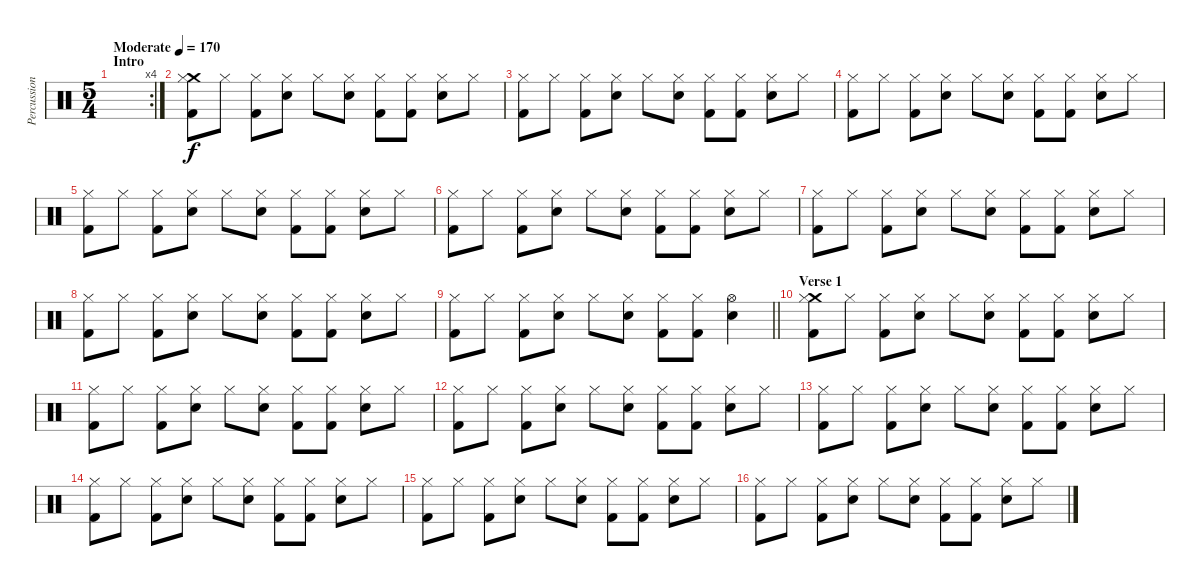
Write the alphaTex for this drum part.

\track ("Percussion" "Percussion") {instrument percussion}
\staff {score}
\articulation defaults
\rc 4
\ts (5 4)
\section ("" "Intro")
\tempo (170 "Moderate")
\clef neutral
\ks c
|
("Crash medium (hit)" "Hi-Hat (closed)" "Kick (hit) 2").8 "Hi-Hat (closed)".8 ("Hi-Hat (closed)" "Kick (hit) 2").8 ("Hi-Hat (closed)" "Electric Snare (hit)").8 "Hi-Hat (closed)".8 ("Hi-Hat (closed)" "Electric Snare (hit)").8 ("Hi-Hat (closed)" "Kick (hit) 2").8 ("Hi-Hat (closed)" "Kick (hit) 2").8 ("Hi-Hat (closed)" "Electric Snare (hit)").8 "Hi-Hat (closed)".8 |
("Hi-Hat (closed)" "Kick (hit) 2").8 "Hi-Hat (closed)".8 ("Hi-Hat (closed)" "Kick (hit) 2").8 ("Hi-Hat (closed)" "Electric Snare (hit)").8 "Hi-Hat (closed)".8 ("Hi-Hat (closed)" "Electric Snare (hit)").8 ("Hi-Hat (closed)" "Kick (hit) 2").8 ("Hi-Hat (closed)" "Kick (hit) 2").8 ("Hi-Hat (closed)" "Electric Snare (hit)").8 "Hi-Hat (closed)".8 |
("Hi-Hat (closed)" "Kick (hit) 2").8 "Hi-Hat (closed)".8 ("Hi-Hat (closed)" "Kick (hit) 2").8 ("Hi-Hat (closed)" "Electric Snare (hit)").8 "Hi-Hat (closed)".8 ("Hi-Hat (closed)" "Electric Snare (hit)").8 ("Hi-Hat (closed)" "Kick (hit) 2").8 ("Hi-Hat (closed)" "Kick (hit) 2").8 ("Hi-Hat (closed)" "Electric Snare (hit)").8 "Hi-Hat (closed)".8 |
("Hi-Hat (closed)" "Kick (hit) 2").8 "Hi-Hat (closed)".8 ("Hi-Hat (closed)" "Kick (hit) 2").8 ("Hi-Hat (closed)" "Electric Snare (hit)").8 "Hi-Hat (closed)".8 ("Hi-Hat (closed)" "Electric Snare (hit)").8 ("Hi-Hat (closed)" "Kick (hit) 2").8 ("Hi-Hat (closed)" "Kick (hit) 2").8 ("Hi-Hat (closed)" "Electric Snare (hit)").8 "Hi-Hat (closed)".8 |
("Hi-Hat (closed)" "Kick (hit) 2").8 "Hi-Hat (closed)".8 ("Hi-Hat (closed)" "Kick (hit) 2").8 ("Hi-Hat (closed)" "Electric Snare (hit)").8 "Hi-Hat (closed)".8 ("Hi-Hat (closed)" "Electric Snare (hit)").8 ("Hi-Hat (closed)" "Kick (hit) 2").8 ("Hi-Hat (closed)" "Kick (hit) 2").8 ("Hi-Hat (closed)" "Electric Snare (hit)").8 "Hi-Hat (closed)".8 |
("Hi-Hat (closed)" "Kick (hit) 2").8 "Hi-Hat (closed)".8 ("Hi-Hat (closed)" "Kick (hit) 2").8 ("Hi-Hat (closed)" "Electric Snare (hit)").8 "Hi-Hat (closed)".8 ("Hi-Hat (closed)" "Electric Snare (hit)").8 ("Hi-Hat (closed)" "Kick (hit) 2").8 ("Hi-Hat (closed)" "Kick (hit) 2").8 ("Hi-Hat (closed)" "Electric Snare (hit)").8 "Hi-Hat (closed)".8 |
("Hi-Hat (closed)" "Kick (hit) 2").8 "Hi-Hat (closed)".8 ("Hi-Hat (closed)" "Kick (hit) 2").8 ("Hi-Hat (closed)" "Electric Snare (hit)").8 "Hi-Hat (closed)".8 ("Hi-Hat (closed)" "Electric Snare (hit)").8 ("Hi-Hat (closed)" "Kick (hit) 2").8 ("Hi-Hat (closed)" "Kick (hit) 2").8 ("Hi-Hat (closed)" "Electric Snare (hit)").8 "Hi-Hat (closed)".8 |
\barLineRight lightlight
("Hi-Hat (closed)" "Kick (hit) 2").8 "Hi-Hat (closed)".8 ("Hi-Hat (closed)" "Kick (hit) 2").8 ("Hi-Hat (closed)" "Electric Snare (hit)").8 "Hi-Hat (closed)".8 ("Hi-Hat (closed)" "Electric Snare (hit)").8 ("Hi-Hat (closed)" "Kick (hit) 2").8 ("Hi-Hat (closed)" "Kick (hit) 2").8 ("Hi-Hat (open)" "Electric Snare (hit)").4 |
\section ("" "Verse 1")
("Crash medium (hit)" "Hi-Hat (closed)" "Kick (hit) 2").8 "Hi-Hat (closed)".8 ("Hi-Hat (closed)" "Kick (hit) 2").8 ("Hi-Hat (closed)" "Electric Snare (hit)").8 "Hi-Hat (closed)".8 ("Hi-Hat (closed)" "Electric Snare (hit)").8 ("Hi-Hat (closed)" "Kick (hit) 2").8 ("Hi-Hat (closed)" "Kick (hit) 2").8 ("Hi-Hat (closed)" "Electric Snare (hit)").8 "Hi-Hat (closed)".8 |
("Hi-Hat (closed)" "Kick (hit) 2").8 "Hi-Hat (closed)".8 ("Hi-Hat (closed)" "Kick (hit) 2").8 ("Hi-Hat (closed)" "Electric Snare (hit)").8 "Hi-Hat (closed)".8 ("Hi-Hat (closed)" "Electric Snare (hit)").8 ("Hi-Hat (closed)" "Kick (hit) 2").8 ("Hi-Hat (closed)" "Kick (hit) 2").8 ("Hi-Hat (closed)" "Electric Snare (hit)").8 "Hi-Hat (closed)".8 |
("Hi-Hat (closed)" "Kick (hit) 2").8 "Hi-Hat (closed)".8 ("Hi-Hat (closed)" "Kick (hit) 2").8 ("Hi-Hat (closed)" "Electric Snare (hit)").8 "Hi-Hat (closed)".8 ("Hi-Hat (closed)" "Electric Snare (hit)").8 ("Hi-Hat (closed)" "Kick (hit) 2").8 ("Hi-Hat (closed)" "Kick (hit) 2").8 ("Hi-Hat (closed)" "Electric Snare (hit)").8 "Hi-Hat (closed)".8 |
("Hi-Hat (closed)" "Kick (hit) 2").8 "Hi-Hat (closed)".8 ("Hi-Hat (closed)" "Kick (hit) 2").8 ("Hi-Hat (closed)" "Electric Snare (hit)").8 "Hi-Hat (closed)".8 ("Hi-Hat (closed)" "Electric Snare (hit)").8 ("Hi-Hat (closed)" "Kick (hit) 2").8 ("Hi-Hat (closed)" "Kick (hit) 2").8 ("Hi-Hat (closed)" "Electric Snare (hit)").8 "Hi-Hat (closed)".8 |
("Hi-Hat (closed)" "Kick (hit) 2").8 "Hi-Hat (closed)".8 ("Hi-Hat (closed)" "Kick (hit) 2").8 ("Hi-Hat (closed)" "Electric Snare (hit)").8 "Hi-Hat (closed)".8 ("Hi-Hat (closed)" "Electric Snare (hit)").8 ("Hi-Hat (closed)" "Kick (hit) 2").8 ("Hi-Hat (closed)" "Kick (hit) 2").8 ("Hi-Hat (closed)" "Electric Snare (hit)").8 "Hi-Hat (closed)".8 |
("Hi-Hat (closed)" "Kick (hit) 2").8 "Hi-Hat (closed)".8 ("Hi-Hat (closed)" "Kick (hit) 2").8 ("Hi-Hat (closed)" "Electric Snare (hit)").8 "Hi-Hat (closed)".8 ("Hi-Hat (closed)" "Electric Snare (hit)").8 ("Hi-Hat (closed)" "Kick (hit) 2").8 ("Hi-Hat (closed)" "Kick (hit) 2").8 ("Hi-Hat (closed)" "Electric Snare (hit)").8 "Hi-Hat (closed)".8 |
("Hi-Hat (closed)" "Kick (hit) 2").8 "Hi-Hat (closed)".8 ("Hi-Hat (closed)" "Kick (hit) 2").8 ("Hi-Hat (closed)" "Electric Snare (hit)").8 "Hi-Hat (closed)".8 ("Hi-Hat (closed)" "Electric Snare (hit)").8 ("Hi-Hat (closed)" "Kick (hit) 2").8 ("Hi-Hat (closed)" "Kick (hit) 2").8 ("Hi-Hat (closed)" "Electric Snare (hit)").8 "Hi-Hat (closed)".8
